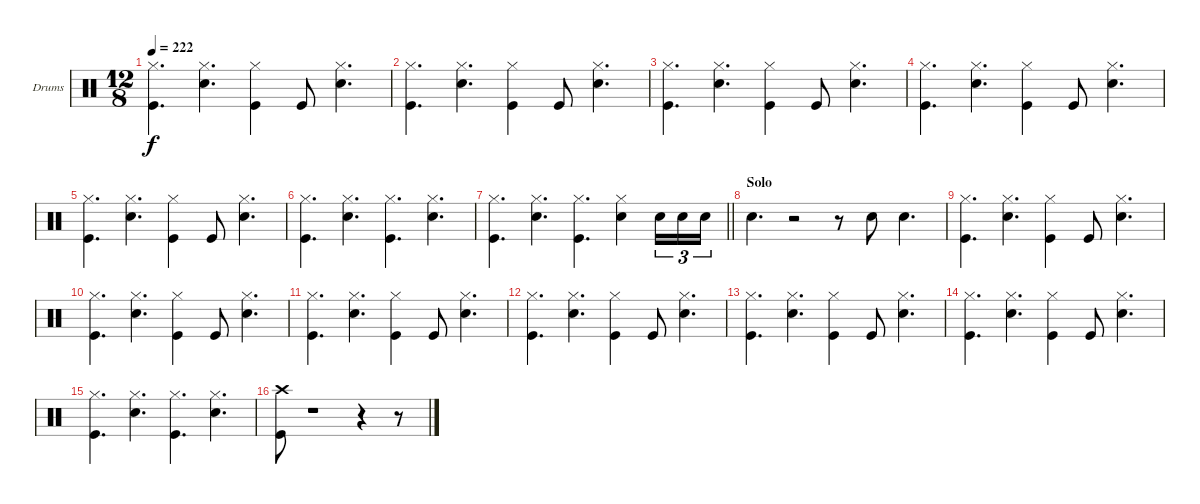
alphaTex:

\bracketExtendMode nobrackets
\firstSystemTrackNameOrientation horizontal
\otherSystemsTrackNameOrientation horizontal
\track ("Drumkit" "Drums") {instrument percussion}
\staff {score}
\articulation defaults
\ts (12 8)
\tempo 222
\clef neutral
\ks c
("Hi-Hat (closed)" "Kick (hit)").4{d dy f} ("Hi-Hat (closed)" "Snare (hit) 2").4{d} ("Hi-Hat (closed)" "Kick (hit)").4 "Kick (hit)".8 ("Hi-Hat (closed)" "Snare (hit) 2").4{d} |
("Hi-Hat (closed)" "Kick (hit)").4{d} ("Hi-Hat (closed)" "Snare (hit) 2").4{d} ("Hi-Hat (closed)" "Kick (hit)").4 "Kick (hit)".8 ("Hi-Hat (closed)" "Snare (hit) 2").4{d} |
("Hi-Hat (closed)" "Kick (hit)").4{d} ("Hi-Hat (closed)" "Snare (hit) 2").4{d} ("Hi-Hat (closed)" "Kick (hit)").4 "Kick (hit)".8 ("Hi-Hat (closed)" "Snare (hit) 2").4{d} |
("Hi-Hat (closed)" "Kick (hit)").4{d} ("Hi-Hat (closed)" "Snare (hit) 2").4{d} ("Hi-Hat (closed)" "Kick (hit)").4 "Kick (hit)".8 ("Hi-Hat (closed)" "Snare (hit) 2").4{d} |
("Hi-Hat (closed)" "Kick (hit)").4{d} ("Hi-Hat (closed)" "Snare (hit) 2").4{d} ("Hi-Hat (closed)" "Kick (hit)").4 "Kick (hit)".8 ("Hi-Hat (closed)" "Snare (hit) 2").4{d} |
("Hi-Hat (closed)" "Kick (hit)").4{d} ("Hi-Hat (closed)" "Snare (hit) 2").4{d} ("Hi-Hat (closed)" "Kick (hit)").4{d} ("Hi-Hat (closed)" "Snare (hit) 2").4{d} |
\barLineRight lightlight
("Hi-Hat (closed)" "Kick (hit)").4{d} ("Hi-Hat (closed)" "Snare (hit) 2").4{d} ("Hi-Hat (closed)" "Kick (hit)").4{d} ("Hi-Hat (closed)" "Snare (hit) 2").4 "Snare (hit) 2".16{tu (3 2)} "Snare (hit) 2".16{tu (3 2)} "Snare (hit) 2".16{tu (3 2)} |
\section ("" "Solo")
"Snare (hit) 2".4{d} r.2 r.8 "Snare (hit) 2".8 "Snare (hit) 2".4{d} |
("Hi-Hat (closed)" "Kick (hit)").4{d} ("Hi-Hat (closed)" "Snare (hit) 2").4{d} ("Hi-Hat (closed)" "Kick (hit)").4 "Kick (hit)".8 ("Hi-Hat (closed)" "Snare (hit) 2").4{d} |
("Hi-Hat (closed)" "Kick (hit)").4{d} ("Hi-Hat (closed)" "Snare (hit) 2").4{d} ("Hi-Hat (closed)" "Kick (hit)").4 "Kick (hit)".8 ("Hi-Hat (closed)" "Snare (hit) 2").4{d} |
("Hi-Hat (closed)" "Kick (hit)").4{d} ("Hi-Hat (closed)" "Snare (hit) 2").4{d} ("Hi-Hat (closed)" "Kick (hit)").4 "Kick (hit)".8 ("Hi-Hat (closed)" "Snare (hit) 2").4{d} |
("Hi-Hat (closed)" "Kick (hit)").4{d} ("Hi-Hat (closed)" "Snare (hit) 2").4{d} ("Hi-Hat (closed)" "Kick (hit)").4 "Kick (hit)".8 ("Hi-Hat (closed)" "Snare (hit) 2").4{d} |
("Hi-Hat (closed)" "Kick (hit)").4{d} ("Hi-Hat (closed)" "Snare (hit) 2").4{d} ("Hi-Hat (closed)" "Kick (hit)").4 "Kick (hit)".8 ("Hi-Hat (closed)" "Snare (hit) 2").4{d} |
("Hi-Hat (closed)" "Kick (hit)").4{d} ("Hi-Hat (closed)" "Snare (hit) 2").4{d} ("Hi-Hat (closed)" "Kick (hit)").4 "Kick (hit)".8 ("Hi-Hat (closed)" "Snare (hit) 2").4{d} |
("Hi-Hat (closed)" "Kick (hit)").4{d} ("Hi-Hat (closed)" "Snare (hit) 2").4{d} ("Hi-Hat (closed)" "Kick (hit)").4{d} ("Hi-Hat (closed)" "Snare (hit) 2").4{d} |
("Kick (hit)" "Crash high (hit)").8 r.1 r.4 r.8
